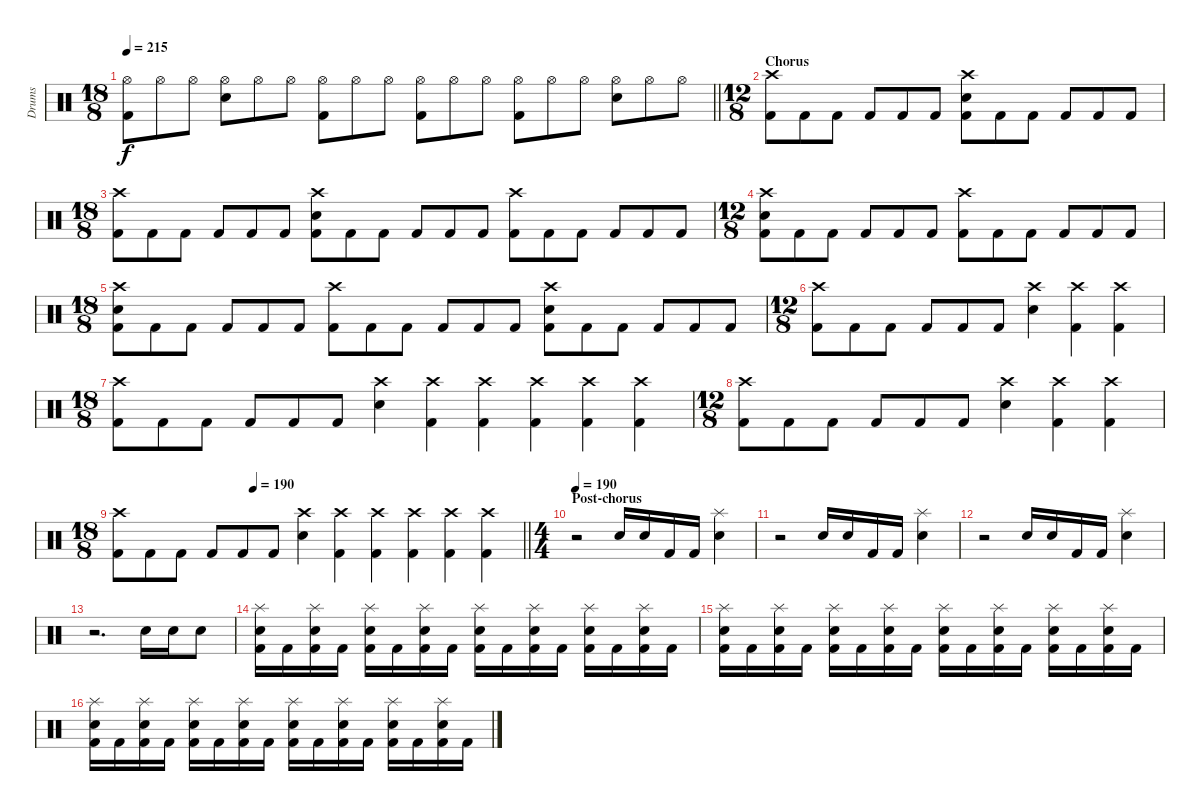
\track ("Drums" "Drums") {instrument percussion bank 127}
\staff {score}
\articulation defaults
\ts (18 8)
\tempo 215
\clef neutral
\barLineRight lightlight
\ks c
("Hi-Hat (open)" "Kick (hit) 2").8{dy f} "Hi-Hat (open)".8 "Hi-Hat (open)".8 ("Hi-Hat (open)" "Electric Snare (hit)").8 "Hi-Hat (open)".8 "Hi-Hat (open)".8 ("Hi-Hat (open)" "Kick (hit) 2").8 "Hi-Hat (open)".8 "Hi-Hat (open)".8 ("Hi-Hat (open)" "Kick (hit) 2").8 "Hi-Hat (open)".8 "Hi-Hat (open)".8 ("Hi-Hat (open)" "Kick (hit) 2").8 "Hi-Hat (open)".8 "Hi-Hat (open)".8 ("Hi-Hat (open)" "Electric Snare (hit)").8 "Hi-Hat (open)".8 "Hi-Hat (open)".8 |
\ts (12 8)
\section ("" "Chorus")
("Crash high (hit)" "Kick (hit) 2").8 "Kick (hit) 2".8 "Kick (hit) 2".8 "Kick (hit) 2".8 "Kick (hit) 2".8 "Kick (hit) 2".8 ("Crash high (hit)" "Electric Snare (hit)" "Kick (hit) 2").8 "Kick (hit) 2".8 "Kick (hit) 2".8 "Kick (hit) 2".8 "Kick (hit) 2".8 "Kick (hit) 2".8 |
\ts (18 8)
("Crash high (hit)" "Kick (hit) 2").8 "Kick (hit) 2".8 "Kick (hit) 2".8 "Kick (hit) 2".8 "Kick (hit) 2".8 "Kick (hit) 2".8 ("Crash high (hit)" "Electric Snare (hit)" "Kick (hit) 2").8 "Kick (hit) 2".8 "Kick (hit) 2".8 "Kick (hit) 2".8 "Kick (hit) 2".8 "Kick (hit) 2".8 ("Crash high (hit)" "Kick (hit) 2").8 "Kick (hit) 2".8 "Kick (hit) 2".8 "Kick (hit) 2".8 "Kick (hit) 2".8 "Kick (hit) 2".8 |
\ts (12 8)
("Crash high (hit)" "Electric Snare (hit)" "Kick (hit) 2").8 "Kick (hit) 2".8 "Kick (hit) 2".8 "Kick (hit) 2".8 "Kick (hit) 2".8 "Kick (hit) 2".8 ("Crash high (hit)" "Kick (hit) 2").8 "Kick (hit) 2".8 "Kick (hit) 2".8 "Kick (hit) 2".8 "Kick (hit) 2".8 "Kick (hit) 2".8 |
\ts (18 8)
("Crash high (hit)" "Electric Snare (hit)" "Kick (hit) 2").8 "Kick (hit) 2".8 "Kick (hit) 2".8 "Kick (hit) 2".8 "Kick (hit) 2".8 "Kick (hit) 2".8 ("Crash high (hit)" "Kick (hit) 2").8 "Kick (hit) 2".8 "Kick (hit) 2".8 "Kick (hit) 2".8 "Kick (hit) 2".8 "Kick (hit) 2".8 ("Crash high (hit)" "Electric Snare (hit)" "Kick (hit) 2").8 "Kick (hit) 2".8 "Kick (hit) 2".8 "Kick (hit) 2".8 "Kick (hit) 2".8 "Kick (hit) 2".8 |
\ts (12 8)
("Crash high (hit)" "Kick (hit) 2").8 "Kick (hit) 2".8 "Kick (hit) 2".8 "Kick (hit) 2".8 "Kick (hit) 2".8 "Kick (hit) 2".8 ("Crash high (hit)" "Electric Snare (hit)").4 ("Crash high (hit)" "Kick (hit) 2").4 ("Crash high (hit)" "Kick (hit) 2").4 |
\ts (18 8)
("Crash high (hit)" "Kick (hit) 2").8 "Kick (hit) 2".8 "Kick (hit) 2".8 "Kick (hit) 2".8 "Kick (hit) 2".8 "Kick (hit) 2".8 ("Crash high (hit)" "Electric Snare (hit)").4 ("Crash high (hit)" "Kick (hit) 2").4 ("Crash high (hit)" "Kick (hit) 2").4 ("Crash high (hit)" "Kick (hit) 2").4 ("Crash high (hit)" "Kick (hit) 2").4 ("Crash high (hit)" "Kick (hit) 2").4 |
\ts (12 8)
("Crash high (hit)" "Kick (hit) 2").8 "Kick (hit) 2".8 "Kick (hit) 2".8 "Kick (hit) 2".8 "Kick (hit) 2".8 "Kick (hit) 2".8 ("Crash high (hit)" "Electric Snare (hit)").4 ("Crash high (hit)" "Kick (hit) 2").4 ("Crash high (hit)" "Kick (hit) 2").4 |
\ts (18 8)
\tempo (190 0.3333333333333333)
\barLineRight lightlight
("Crash high (hit)" "Kick (hit) 2").8 "Kick (hit) 2".8 "Kick (hit) 2".8 "Kick (hit) 2".8 "Kick (hit) 2".8 "Kick (hit) 2".8 ("Crash high (hit)" "Electric Snare (hit)").4 ("Crash high (hit)" "Kick (hit) 2").4 ("Crash high (hit)" "Kick (hit) 2").4 ("Crash high (hit)" "Kick (hit) 2").4 ("Crash high (hit)" "Kick (hit) 2").4 ("Crash high (hit)" "Kick (hit) 2").4 |
\ts (4 4)
\section ("" "Post-chorus")
\tempo 190
r.2 "Electric Snare (hit)".16 "Electric Snare (hit)".16 "Kick (hit) 2".16 "Kick (hit) 2".16 ("Splash (hit)" "Electric Snare (hit)").4 |
r.2 "Electric Snare (hit)".16 "Electric Snare (hit)".16 "Kick (hit) 2".16 "Kick (hit) 2".16 ("Splash (hit)" "Electric Snare (hit)").4 |
r.2 "Electric Snare (hit)".16 "Electric Snare (hit)".16 "Kick (hit) 2".16 "Kick (hit) 2".16 ("Splash (hit)" "Electric Snare (hit)").4 |
r.2{d} "Electric Snare (hit)".16 "Electric Snare (hit)".16 "Electric Snare (hit)".8 |
("Splash (hit)" "Electric Snare (hit)" "Kick (hit) 2").16 "Kick (hit) 2".16 ("Splash (hit)" "Electric Snare (hit)" "Kick (hit) 2").16 "Kick (hit) 2".16 ("Splash (hit)" "Electric Snare (hit)" "Kick (hit) 2").16 "Kick (hit) 2".16 ("Splash (hit)" "Electric Snare (hit)" "Kick (hit) 2").16 "Kick (hit) 2".16 ("Splash (hit)" "Electric Snare (hit)" "Kick (hit) 2").16 "Kick (hit) 2".16 ("Splash (hit)" "Electric Snare (hit)" "Kick (hit) 2").16 "Kick (hit) 2".16 ("Splash (hit)" "Electric Snare (hit)" "Kick (hit) 2").16 "Kick (hit) 2".16 ("Splash (hit)" "Electric Snare (hit)" "Kick (hit) 2").16 "Kick (hit) 2".16 |
("Splash (hit)" "Electric Snare (hit)" "Kick (hit) 2").16 "Kick (hit) 2".16 ("Splash (hit)" "Electric Snare (hit)" "Kick (hit) 2").16 "Kick (hit) 2".16 ("Splash (hit)" "Electric Snare (hit)" "Kick (hit) 2").16 "Kick (hit) 2".16 ("Splash (hit)" "Electric Snare (hit)" "Kick (hit) 2").16 "Kick (hit) 2".16 ("Splash (hit)" "Electric Snare (hit)" "Kick (hit) 2").16 "Kick (hit) 2".16 ("Splash (hit)" "Electric Snare (hit)" "Kick (hit) 2").16 "Kick (hit) 2".16 ("Splash (hit)" "Electric Snare (hit)" "Kick (hit) 2").16 "Kick (hit) 2".16 ("Splash (hit)" "Electric Snare (hit)" "Kick (hit) 2").16 "Kick (hit) 2".16 |
("Splash (hit)" "Electric Snare (hit)" "Kick (hit) 2").16 "Kick (hit) 2".16 ("Splash (hit)" "Electric Snare (hit)" "Kick (hit) 2").16 "Kick (hit) 2".16 ("Splash (hit)" "Electric Snare (hit)" "Kick (hit) 2").16 "Kick (hit) 2".16 ("Splash (hit)" "Electric Snare (hit)" "Kick (hit) 2").16 "Kick (hit) 2".16 ("Splash (hit)" "Electric Snare (hit)" "Kick (hit) 2").16 "Kick (hit) 2".16 ("Splash (hit)" "Electric Snare (hit)" "Kick (hit) 2").16 "Kick (hit) 2".16 ("Splash (hit)" "Electric Snare (hit)" "Kick (hit) 2").16 "Kick (hit) 2".16 ("Splash (hit)" "Electric Snare (hit)" "Kick (hit) 2").16 "Kick (hit) 2".16
